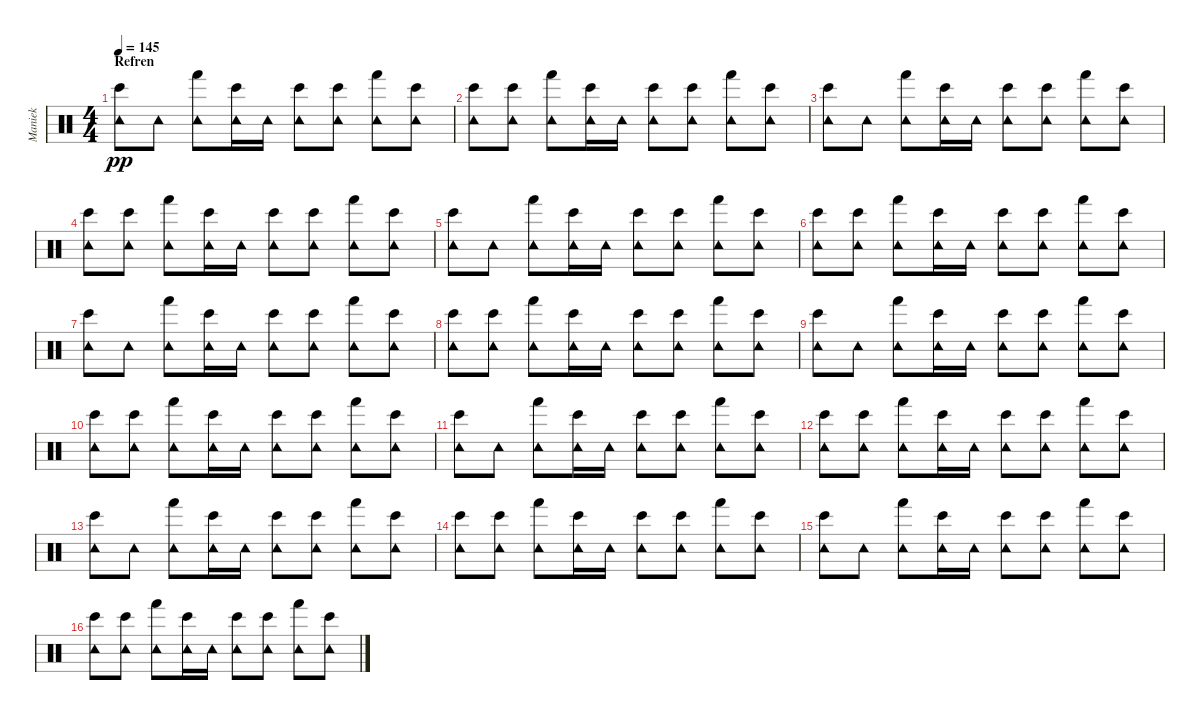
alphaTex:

\track ("Maniek" "Maniek") {instrument percussion}
\staff {score}
\articulation defaults
\ts (4 4)
\section ("" "Refren")
\tempo 145
\clef neutral
\ks c
("Bongo High (hit)" "Tambourine (hit)").8{dy pp} "Tambourine (hit)".8 ("Hand (hit)" "Tambourine (hit)").8 ("Bongo High (hit)" "Tambourine (hit)").16 "Tambourine (hit)".16 ("Bongo High (hit)" "Tambourine (hit)").8 ("Bongo High (hit)" "Tambourine (hit)").8 ("Hand (hit)" "Tambourine (hit)").8 ("Bongo High (hit)" "Tambourine (hit)").8 |
("Bongo High (hit)" "Tambourine (hit)").8 ("Bongo High (hit)" "Tambourine (hit)").8 ("Hand (hit)" "Tambourine (hit)").8 ("Bongo High (hit)" "Tambourine (hit)").16 "Tambourine (hit)".16 ("Bongo High (hit)" "Tambourine (hit)").8 ("Bongo High (hit)" "Tambourine (hit)").8 ("Hand (hit)" "Tambourine (hit)").8 ("Bongo High (hit)" "Tambourine (hit)").8 |
("Bongo High (hit)" "Tambourine (hit)").8 "Tambourine (hit)".8 ("Hand (hit)" "Tambourine (hit)").8 ("Bongo High (hit)" "Tambourine (hit)").16 "Tambourine (hit)".16 ("Bongo High (hit)" "Tambourine (hit)").8 ("Bongo High (hit)" "Tambourine (hit)").8 ("Hand (hit)" "Tambourine (hit)").8 ("Bongo High (hit)" "Tambourine (hit)").8 |
("Bongo High (hit)" "Tambourine (hit)").8 ("Bongo High (hit)" "Tambourine (hit)").8 ("Hand (hit)" "Tambourine (hit)").8 ("Bongo High (hit)" "Tambourine (hit)").16 "Tambourine (hit)".16 ("Bongo High (hit)" "Tambourine (hit)").8 ("Bongo High (hit)" "Tambourine (hit)").8 ("Hand (hit)" "Tambourine (hit)").8 ("Bongo High (hit)" "Tambourine (hit)").8 |
("Bongo High (hit)" "Tambourine (hit)").8 "Tambourine (hit)".8 ("Hand (hit)" "Tambourine (hit)").8 ("Bongo High (hit)" "Tambourine (hit)").16 "Tambourine (hit)".16 ("Bongo High (hit)" "Tambourine (hit)").8 ("Bongo High (hit)" "Tambourine (hit)").8 ("Hand (hit)" "Tambourine (hit)").8 ("Bongo High (hit)" "Tambourine (hit)").8 |
("Bongo High (hit)" "Tambourine (hit)").8 ("Bongo High (hit)" "Tambourine (hit)").8 ("Hand (hit)" "Tambourine (hit)").8 ("Bongo High (hit)" "Tambourine (hit)").16 "Tambourine (hit)".16 ("Bongo High (hit)" "Tambourine (hit)").8 ("Bongo High (hit)" "Tambourine (hit)").8 ("Hand (hit)" "Tambourine (hit)").8 ("Bongo High (hit)" "Tambourine (hit)").8 |
("Bongo High (hit)" "Tambourine (hit)").8 "Tambourine (hit)".8 ("Hand (hit)" "Tambourine (hit)").8 ("Bongo High (hit)" "Tambourine (hit)").16 "Tambourine (hit)".16 ("Bongo High (hit)" "Tambourine (hit)").8 ("Bongo High (hit)" "Tambourine (hit)").8 ("Hand (hit)" "Tambourine (hit)").8 ("Bongo High (hit)" "Tambourine (hit)").8 |
("Bongo High (hit)" "Tambourine (hit)").8 ("Bongo High (hit)" "Tambourine (hit)").8 ("Hand (hit)" "Tambourine (hit)").8 ("Bongo High (hit)" "Tambourine (hit)").16 "Tambourine (hit)".16 ("Bongo High (hit)" "Tambourine (hit)").8 ("Bongo High (hit)" "Tambourine (hit)").8 ("Hand (hit)" "Tambourine (hit)").8 ("Bongo High (hit)" "Tambourine (hit)").8 |
("Bongo High (hit)" "Tambourine (hit)").8 "Tambourine (hit)".8 ("Hand (hit)" "Tambourine (hit)").8 ("Bongo High (hit)" "Tambourine (hit)").16 "Tambourine (hit)".16 ("Bongo High (hit)" "Tambourine (hit)").8 ("Bongo High (hit)" "Tambourine (hit)").8 ("Hand (hit)" "Tambourine (hit)").8 ("Bongo High (hit)" "Tambourine (hit)").8 |
("Bongo High (hit)" "Tambourine (hit)").8 ("Bongo High (hit)" "Tambourine (hit)").8 ("Hand (hit)" "Tambourine (hit)").8 ("Bongo High (hit)" "Tambourine (hit)").16 "Tambourine (hit)".16 ("Bongo High (hit)" "Tambourine (hit)").8 ("Bongo High (hit)" "Tambourine (hit)").8 ("Hand (hit)" "Tambourine (hit)").8 ("Bongo High (hit)" "Tambourine (hit)").8 |
("Bongo High (hit)" "Tambourine (hit)").8 "Tambourine (hit)".8 ("Hand (hit)" "Tambourine (hit)").8 ("Bongo High (hit)" "Tambourine (hit)").16 "Tambourine (hit)".16 ("Bongo High (hit)" "Tambourine (hit)").8 ("Bongo High (hit)" "Tambourine (hit)").8 ("Hand (hit)" "Tambourine (hit)").8 ("Bongo High (hit)" "Tambourine (hit)").8 |
("Bongo High (hit)" "Tambourine (hit)").8 ("Bongo High (hit)" "Tambourine (hit)").8 ("Hand (hit)" "Tambourine (hit)").8 ("Bongo High (hit)" "Tambourine (hit)").16 "Tambourine (hit)".16 ("Bongo High (hit)" "Tambourine (hit)").8 ("Bongo High (hit)" "Tambourine (hit)").8 ("Hand (hit)" "Tambourine (hit)").8 ("Bongo High (hit)" "Tambourine (hit)").8 |
("Bongo High (hit)" "Tambourine (hit)").8 "Tambourine (hit)".8 ("Hand (hit)" "Tambourine (hit)").8 ("Bongo High (hit)" "Tambourine (hit)").16 "Tambourine (hit)".16 ("Bongo High (hit)" "Tambourine (hit)").8 ("Bongo High (hit)" "Tambourine (hit)").8 ("Hand (hit)" "Tambourine (hit)").8 ("Bongo High (hit)" "Tambourine (hit)").8 |
("Bongo High (hit)" "Tambourine (hit)").8 ("Bongo High (hit)" "Tambourine (hit)").8 ("Hand (hit)" "Tambourine (hit)").8 ("Bongo High (hit)" "Tambourine (hit)").16 "Tambourine (hit)".16 ("Bongo High (hit)" "Tambourine (hit)").8 ("Bongo High (hit)" "Tambourine (hit)").8 ("Hand (hit)" "Tambourine (hit)").8 ("Bongo High (hit)" "Tambourine (hit)").8 |
("Bongo High (hit)" "Tambourine (hit)").8 "Tambourine (hit)".8 ("Hand (hit)" "Tambourine (hit)").8 ("Bongo High (hit)" "Tambourine (hit)").16 "Tambourine (hit)".16 ("Bongo High (hit)" "Tambourine (hit)").8 ("Bongo High (hit)" "Tambourine (hit)").8 ("Hand (hit)" "Tambourine (hit)").8 ("Bongo High (hit)" "Tambourine (hit)").8 |
("Bongo High (hit)" "Tambourine (hit)").8 ("Bongo High (hit)" "Tambourine (hit)").8 ("Hand (hit)" "Tambourine (hit)").8 ("Bongo High (hit)" "Tambourine (hit)").16 "Tambourine (hit)".16 ("Bongo High (hit)" "Tambourine (hit)").8 ("Bongo High (hit)" "Tambourine (hit)").8 ("Hand (hit)" "Tambourine (hit)").8 ("Bongo High (hit)" "Tambourine (hit)").8
